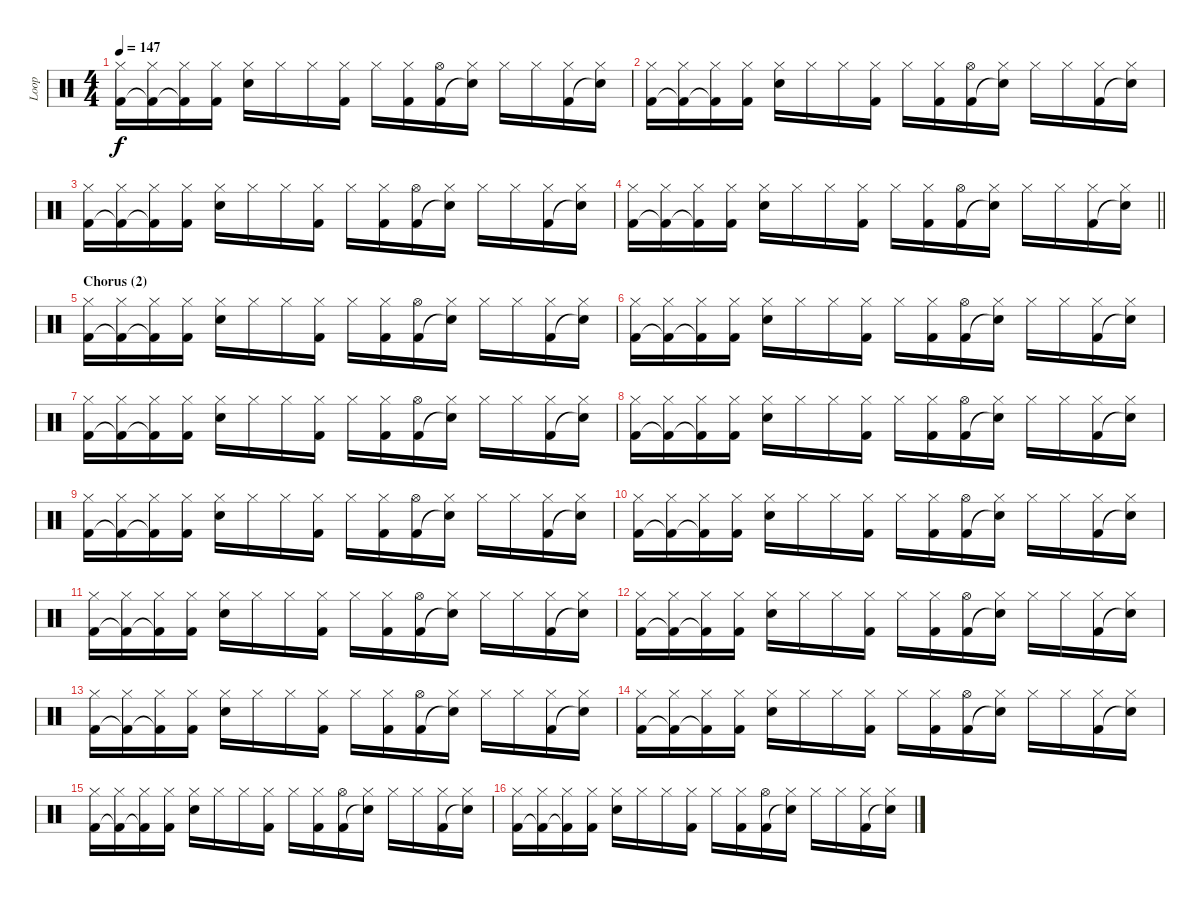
\track ("Loop" "Loop") {instrument percussion}
\staff {score}
\articulation defaults
\ts (4 4)
\tempo 147
\clef neutral
\ks aminor
("Hi-Hat (closed)" "Kick (hit) 2").16{dy f} ("Hi-Hat (closed)" "Kick (hit) 2"{t}).16 ("Hi-Hat (closed)" "Kick (hit) 2"{t}).16 ("Hi-Hat (closed)" "Kick (hit) 2").16 ("Hi-Hat (closed)" "Electric Snare (hit)").16 "Hi-Hat (closed)".16 "Hi-Hat (closed)".16 ("Hi-Hat (closed)" "Kick (hit) 2").16 "Hi-Hat (closed)".16 ("Hi-Hat (closed)" "Kick (hit) 2").16 ("Hi-Hat (open)" "Kick (hit) 2").16 ("Hi-Hat (closed)" "Snare (hit)"{t}).16 "Hi-Hat (closed)".16 "Hi-Hat (closed)".16 ("Hi-Hat (closed)" "Kick (hit) 2").16 ("Hi-Hat (closed)" "Snare (hit)"{t}).16 |
("Hi-Hat (closed)" "Kick (hit) 2").16 ("Hi-Hat (closed)" "Kick (hit) 2"{t}).16 ("Hi-Hat (closed)" "Kick (hit) 2"{t}).16 ("Hi-Hat (closed)" "Kick (hit) 2").16 ("Hi-Hat (closed)" "Electric Snare (hit)").16 "Hi-Hat (closed)".16 "Hi-Hat (closed)".16 ("Hi-Hat (closed)" "Kick (hit) 2").16 "Hi-Hat (closed)".16 ("Hi-Hat (closed)" "Kick (hit) 2").16 ("Hi-Hat (open)" "Kick (hit) 2").16 ("Hi-Hat (closed)" "Snare (hit)"{t}).16 "Hi-Hat (closed)".16 "Hi-Hat (closed)".16 ("Hi-Hat (closed)" "Kick (hit) 2").16 ("Hi-Hat (closed)" "Snare (hit)"{t}).16 |
("Hi-Hat (closed)" "Kick (hit) 2").16 ("Hi-Hat (closed)" "Kick (hit) 2"{t}).16 ("Hi-Hat (closed)" "Kick (hit) 2"{t}).16 ("Hi-Hat (closed)" "Kick (hit) 2").16 ("Hi-Hat (closed)" "Electric Snare (hit)").16 "Hi-Hat (closed)".16 "Hi-Hat (closed)".16 ("Hi-Hat (closed)" "Kick (hit) 2").16 "Hi-Hat (closed)".16 ("Hi-Hat (closed)" "Kick (hit) 2").16 ("Hi-Hat (open)" "Kick (hit) 2").16 ("Hi-Hat (closed)" "Snare (hit)"{t}).16 "Hi-Hat (closed)".16 "Hi-Hat (closed)".16 ("Hi-Hat (closed)" "Kick (hit) 2").16 ("Hi-Hat (closed)" "Snare (hit)"{t}).16 |
\barLineRight lightlight
("Hi-Hat (closed)" "Kick (hit) 2").16 ("Hi-Hat (closed)" "Kick (hit) 2"{t}).16 ("Hi-Hat (closed)" "Kick (hit) 2"{t}).16 ("Hi-Hat (closed)" "Kick (hit) 2").16 ("Hi-Hat (closed)" "Electric Snare (hit)").16 "Hi-Hat (closed)".16 "Hi-Hat (closed)".16 ("Hi-Hat (closed)" "Kick (hit) 2").16 "Hi-Hat (closed)".16 ("Hi-Hat (closed)" "Kick (hit) 2").16 ("Hi-Hat (open)" "Kick (hit) 2").16 ("Hi-Hat (closed)" "Snare (hit)"{t}).16 "Hi-Hat (closed)".16 "Hi-Hat (closed)".16 ("Hi-Hat (closed)" "Kick (hit) 2").16 ("Hi-Hat (closed)" "Snare (hit)"{t}).16 |
\section ("" "Chorus (2)")
("Hi-Hat (closed)" "Kick (hit) 2").16 ("Hi-Hat (closed)" "Kick (hit) 2"{t}).16 ("Hi-Hat (closed)" "Kick (hit) 2"{t}).16 ("Hi-Hat (closed)" "Kick (hit) 2").16 ("Hi-Hat (closed)" "Electric Snare (hit)").16 "Hi-Hat (closed)".16 "Hi-Hat (closed)".16 ("Hi-Hat (closed)" "Kick (hit) 2").16 "Hi-Hat (closed)".16 ("Hi-Hat (closed)" "Kick (hit) 2").16 ("Hi-Hat (open)" "Kick (hit) 2").16 ("Hi-Hat (closed)" "Snare (hit)"{t}).16 "Hi-Hat (closed)".16 "Hi-Hat (closed)".16 ("Hi-Hat (closed)" "Kick (hit) 2").16 ("Hi-Hat (closed)" "Snare (hit)"{t}).16 |
("Hi-Hat (closed)" "Kick (hit) 2").16 ("Hi-Hat (closed)" "Kick (hit) 2"{t}).16 ("Hi-Hat (closed)" "Kick (hit) 2"{t}).16 ("Hi-Hat (closed)" "Kick (hit) 2").16 ("Hi-Hat (closed)" "Electric Snare (hit)").16 "Hi-Hat (closed)".16 "Hi-Hat (closed)".16 ("Hi-Hat (closed)" "Kick (hit) 2").16 "Hi-Hat (closed)".16 ("Hi-Hat (closed)" "Kick (hit) 2").16 ("Hi-Hat (open)" "Kick (hit) 2").16 ("Hi-Hat (closed)" "Snare (hit)"{t}).16 "Hi-Hat (closed)".16 "Hi-Hat (closed)".16 ("Hi-Hat (closed)" "Kick (hit) 2").16 ("Hi-Hat (closed)" "Snare (hit)"{t}).16 |
("Hi-Hat (closed)" "Kick (hit) 2").16 ("Hi-Hat (closed)" "Kick (hit) 2"{t}).16 ("Hi-Hat (closed)" "Kick (hit) 2"{t}).16 ("Hi-Hat (closed)" "Kick (hit) 2").16 ("Hi-Hat (closed)" "Electric Snare (hit)").16 "Hi-Hat (closed)".16 "Hi-Hat (closed)".16 ("Hi-Hat (closed)" "Kick (hit) 2").16 "Hi-Hat (closed)".16 ("Hi-Hat (closed)" "Kick (hit) 2").16 ("Hi-Hat (open)" "Kick (hit) 2").16 ("Hi-Hat (closed)" "Snare (hit)"{t}).16 "Hi-Hat (closed)".16 "Hi-Hat (closed)".16 ("Hi-Hat (closed)" "Kick (hit) 2").16 ("Hi-Hat (closed)" "Snare (hit)"{t}).16 |
("Hi-Hat (closed)" "Kick (hit) 2").16 ("Hi-Hat (closed)" "Kick (hit) 2"{t}).16 ("Hi-Hat (closed)" "Kick (hit) 2"{t}).16 ("Hi-Hat (closed)" "Kick (hit) 2").16 ("Hi-Hat (closed)" "Electric Snare (hit)").16 "Hi-Hat (closed)".16 "Hi-Hat (closed)".16 ("Hi-Hat (closed)" "Kick (hit) 2").16 "Hi-Hat (closed)".16 ("Hi-Hat (closed)" "Kick (hit) 2").16 ("Hi-Hat (open)" "Kick (hit) 2").16 ("Hi-Hat (closed)" "Snare (hit)"{t}).16 "Hi-Hat (closed)".16 "Hi-Hat (closed)".16 ("Hi-Hat (closed)" "Kick (hit) 2").16 ("Hi-Hat (closed)" "Snare (hit)"{t}).16 |
("Hi-Hat (closed)" "Kick (hit) 2").16 ("Hi-Hat (closed)" "Kick (hit) 2"{t}).16 ("Hi-Hat (closed)" "Kick (hit) 2"{t}).16 ("Hi-Hat (closed)" "Kick (hit) 2").16 ("Hi-Hat (closed)" "Electric Snare (hit)").16 "Hi-Hat (closed)".16 "Hi-Hat (closed)".16 ("Hi-Hat (closed)" "Kick (hit) 2").16 "Hi-Hat (closed)".16 ("Hi-Hat (closed)" "Kick (hit) 2").16 ("Hi-Hat (open)" "Kick (hit) 2").16 ("Hi-Hat (closed)" "Snare (hit)"{t}).16 "Hi-Hat (closed)".16 "Hi-Hat (closed)".16 ("Hi-Hat (closed)" "Kick (hit) 2").16 ("Hi-Hat (closed)" "Snare (hit)"{t}).16 |
("Hi-Hat (closed)" "Kick (hit) 2").16 ("Hi-Hat (closed)" "Kick (hit) 2"{t}).16 ("Hi-Hat (closed)" "Kick (hit) 2"{t}).16 ("Hi-Hat (closed)" "Kick (hit) 2").16 ("Hi-Hat (closed)" "Electric Snare (hit)").16 "Hi-Hat (closed)".16 "Hi-Hat (closed)".16 ("Hi-Hat (closed)" "Kick (hit) 2").16 "Hi-Hat (closed)".16 ("Hi-Hat (closed)" "Kick (hit) 2").16 ("Hi-Hat (open)" "Kick (hit) 2").16 ("Hi-Hat (closed)" "Snare (hit)"{t}).16 "Hi-Hat (closed)".16 "Hi-Hat (closed)".16 ("Hi-Hat (closed)" "Kick (hit) 2").16 ("Hi-Hat (closed)" "Snare (hit)"{t}).16 |
("Hi-Hat (closed)" "Kick (hit) 2").16 ("Hi-Hat (closed)" "Kick (hit) 2"{t}).16 ("Hi-Hat (closed)" "Kick (hit) 2"{t}).16 ("Hi-Hat (closed)" "Kick (hit) 2").16 ("Hi-Hat (closed)" "Electric Snare (hit)").16 "Hi-Hat (closed)".16 "Hi-Hat (closed)".16 ("Hi-Hat (closed)" "Kick (hit) 2").16 "Hi-Hat (closed)".16 ("Hi-Hat (closed)" "Kick (hit) 2").16 ("Hi-Hat (open)" "Kick (hit) 2").16 ("Hi-Hat (closed)" "Snare (hit)"{t}).16 "Hi-Hat (closed)".16 "Hi-Hat (closed)".16 ("Hi-Hat (closed)" "Kick (hit) 2").16 ("Hi-Hat (closed)" "Snare (hit)"{t}).16 |
("Hi-Hat (closed)" "Kick (hit) 2").16 ("Hi-Hat (closed)" "Kick (hit) 2"{t}).16 ("Hi-Hat (closed)" "Kick (hit) 2"{t}).16 ("Hi-Hat (closed)" "Kick (hit) 2").16 ("Hi-Hat (closed)" "Electric Snare (hit)").16 "Hi-Hat (closed)".16 "Hi-Hat (closed)".16 ("Hi-Hat (closed)" "Kick (hit) 2").16 "Hi-Hat (closed)".16 ("Hi-Hat (closed)" "Kick (hit) 2").16 ("Hi-Hat (open)" "Kick (hit) 2").16 ("Hi-Hat (closed)" "Snare (hit)"{t}).16 "Hi-Hat (closed)".16 "Hi-Hat (closed)".16 ("Hi-Hat (closed)" "Kick (hit) 2").16 ("Hi-Hat (closed)" "Snare (hit)"{t}).16 |
("Hi-Hat (closed)" "Kick (hit) 2").16 ("Hi-Hat (closed)" "Kick (hit) 2"{t}).16 ("Hi-Hat (closed)" "Kick (hit) 2"{t}).16 ("Hi-Hat (closed)" "Kick (hit) 2").16 ("Hi-Hat (closed)" "Electric Snare (hit)").16 "Hi-Hat (closed)".16 "Hi-Hat (closed)".16 ("Hi-Hat (closed)" "Kick (hit) 2").16 "Hi-Hat (closed)".16 ("Hi-Hat (closed)" "Kick (hit) 2").16 ("Hi-Hat (open)" "Kick (hit) 2").16 ("Hi-Hat (closed)" "Snare (hit)"{t}).16 "Hi-Hat (closed)".16 "Hi-Hat (closed)".16 ("Hi-Hat (closed)" "Kick (hit) 2").16 ("Hi-Hat (closed)" "Snare (hit)"{t}).16 |
("Hi-Hat (closed)" "Kick (hit) 2").16 ("Hi-Hat (closed)" "Kick (hit) 2"{t}).16 ("Hi-Hat (closed)" "Kick (hit) 2"{t}).16 ("Hi-Hat (closed)" "Kick (hit) 2").16 ("Hi-Hat (closed)" "Electric Snare (hit)").16 "Hi-Hat (closed)".16 "Hi-Hat (closed)".16 ("Hi-Hat (closed)" "Kick (hit) 2").16 "Hi-Hat (closed)".16 ("Hi-Hat (closed)" "Kick (hit) 2").16 ("Hi-Hat (open)" "Kick (hit) 2").16 ("Hi-Hat (closed)" "Snare (hit)"{t}).16 "Hi-Hat (closed)".16 "Hi-Hat (closed)".16 ("Hi-Hat (closed)" "Kick (hit) 2").16 ("Hi-Hat (closed)" "Snare (hit)"{t}).16 |
("Hi-Hat (closed)" "Kick (hit) 2").16 ("Hi-Hat (closed)" "Kick (hit) 2"{t}).16 ("Hi-Hat (closed)" "Kick (hit) 2"{t}).16 ("Hi-Hat (closed)" "Kick (hit) 2").16 ("Hi-Hat (closed)" "Electric Snare (hit)").16 "Hi-Hat (closed)".16 "Hi-Hat (closed)".16 ("Hi-Hat (closed)" "Kick (hit) 2").16 "Hi-Hat (closed)".16 ("Hi-Hat (closed)" "Kick (hit) 2").16 ("Hi-Hat (open)" "Kick (hit) 2").16 ("Hi-Hat (closed)" "Snare (hit)"{t}).16 "Hi-Hat (closed)".16 "Hi-Hat (closed)".16 ("Hi-Hat (closed)" "Kick (hit) 2").16 ("Hi-Hat (closed)" "Snare (hit)"{t}).16 |
("Hi-Hat (closed)" "Kick (hit) 2").16 ("Hi-Hat (closed)" "Kick (hit) 2"{t}).16 ("Hi-Hat (closed)" "Kick (hit) 2"{t}).16 ("Hi-Hat (closed)" "Kick (hit) 2").16 ("Hi-Hat (closed)" "Electric Snare (hit)").16 "Hi-Hat (closed)".16 "Hi-Hat (closed)".16 ("Hi-Hat (closed)" "Kick (hit) 2").16 "Hi-Hat (closed)".16 ("Hi-Hat (closed)" "Kick (hit) 2").16 ("Hi-Hat (open)" "Kick (hit) 2").16 ("Hi-Hat (closed)" "Snare (hit)"{t}).16 "Hi-Hat (closed)".16 "Hi-Hat (closed)".16 ("Hi-Hat (closed)" "Kick (hit) 2").16 ("Hi-Hat (closed)" "Snare (hit)"{t}).16
